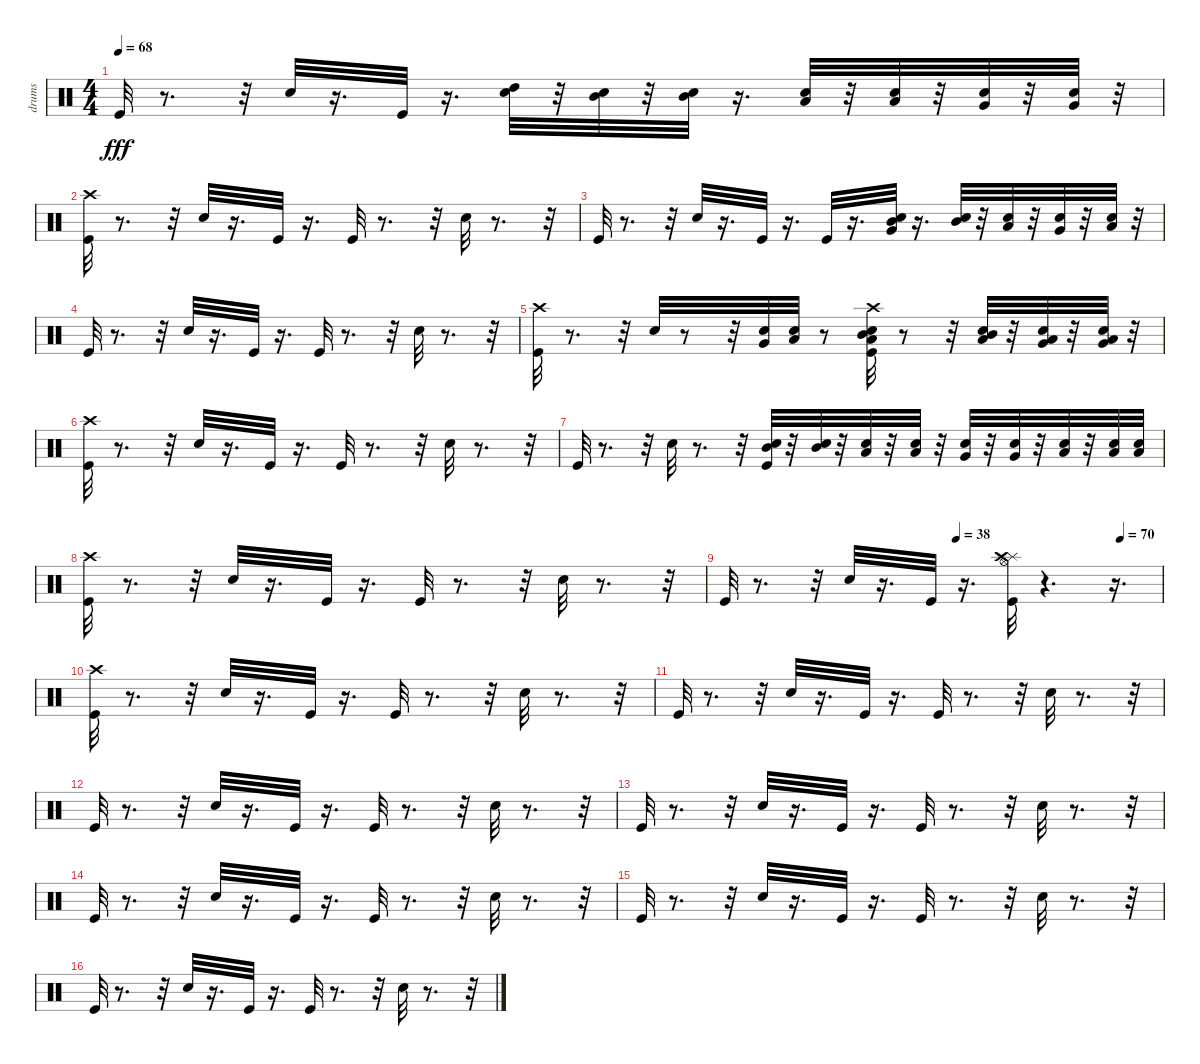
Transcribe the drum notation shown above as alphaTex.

\track ("drums" "drums") {instrument percussion}
\staff {score}
\articulation defaults
\ts (4 4)
\tempo 68
\clef neutral
\ks c "Kick (hit)".32{dy fff}
r.8{d} r.32 "Snare (hit) 2".32 r.16{d} "Kick (hit)".32 r.16{d} ("Snare (hit) 2" "High Tom (hit)").32 r.32 ("Snare (hit) 2" "Mid Tom (hit)").32 r.32 ("Snare (hit) 2" "Mid Tom (hit)").32 r.16{d} ("Snare (hit) 2" "Low Tom (hit)").32 r.32 ("Low Tom (hit)" "Snare (hit) 2").32 r.32 ("Snare (hit) 2" "Very Low Tom (hit)").32 r.32 ("Snare (hit) 2" "Very Low Tom (hit)").32 r.32 |
("Kick (hit)" "Crash high (hit)").32 r.8{d} r.32 "Snare (hit) 2".32 r.16{d} "Kick (hit)".32 r.16{d} "Kick (hit)".32 r.8{d} r.32 "Snare (hit) 2".32 r.8{d} r.32 |
"Kick (hit)".32 r.8{d} r.32 "Snare (hit) 2".32 r.16{d} "Kick (hit)".32 r.16{d} "Kick (hit)".32 r.16{d} ("Snare (hit) 2" "Mid Tom (hit)" "Very Low Tom (hit)").32 r.16{d} ("Snare (hit) 2" "Mid Tom (hit)").32 r.32 ("Low Tom (hit)" "Snare (hit) 2").32 r.32 ("Snare (hit) 2" "Very Low Tom (hit)").32 r.32 ("Snare (hit) 2" "Low Floor Tom (hit)").32 r.32 |
"Kick (hit)".32 r.8{d} r.32 "Snare (hit) 2".32 r.16{d} "Kick (hit)".32 r.16{d} "Kick (hit)".32 r.8{d} r.32 "Snare (hit) 2".32 r.8{d} r.32 |
("Kick (hit)" "Crash high (hit)").32 r.8{d} r.32 "Snare (hit) 2".32 r.8 r.32 ("Snare (hit) 2" "Very Low Tom (hit)").32 ("Snare (hit) 2" "Low Floor Tom (hit)").32 r.8 ("Snare (hit) 2" "Kick (hit)" "Crash high (hit)" "Mid Tom (hit)" "Low Tom (hit)").32 r.8 r.32 ("Snare (hit) 2" "Mid Tom (hit)" "Low Tom (hit)").32 r.32 ("Snare (hit) 2" "Low Tom (hit)" "Very Low Tom (hit)").32 r.32 ("Snare (hit) 2" "Low Floor Tom (hit)" "Very Low Tom (hit)").32 r.32 |
("Kick (hit)" "Crash high (hit)").32 r.8{d} r.32 "Snare (hit) 2".32 r.16{d} "Kick (hit)".32 r.16{d} "Kick (hit)".32 r.8{d} r.32 "Snare (hit) 2".32 r.8{d} r.32 |
"Kick (hit)".32 r.8{d} r.32 "Snare (hit) 2".32 r.8{d} r.32 ("Kick (hit)" "Snare (hit) 2" "Mid Tom (hit)").32 r.32 ("Snare (hit) 2" "Mid Tom (hit)").32 r.32 ("Snare (hit) 2" "Low Tom (hit)").32 r.32 ("Snare (hit) 2" "Low Tom (hit)").32 r.32 ("Snare (hit) 2" "Very Low Tom (hit)").32 r.32 ("Snare (hit) 2" "Very Low Tom (hit)").32 r.32 ("Low Floor Tom (hit)" "Snare (hit) 2").32 r.32 ("Snare (hit) 2" "Low Floor Tom (hit)").32 ("Snare (hit) 2" "Low Floor Tom (hit)").32 |
("Kick (hit)" "Crash high (hit)").32 r.8{d} r.32 "Snare (hit) 2".32 r.16{d} "Kick (hit)".32 r.16{d} "Kick (hit)".32 r.8{d} r.32 "Snare (hit) 2".32 r.8{d} r.32 |
\tempo (38 0.53125)
\tempo (70 0.90625)
"Kick (hit)".32 r.8{d} r.32 "Snare (hit) 2".32 r.16{d} "Kick (hit)".32 r.16{d} ("Kick (hit)" "Splash (hit)" "Hi-Hat (open)" "Crash high (hit)").32 r.4{d} r.16{d} |
("Kick (hit)" "Crash high (hit)").32 r.8{d} r.32 "Snare (hit) 2".32 r.16{d} "Kick (hit)".32 r.16{d} "Kick (hit)".32 r.8{d} r.32 "Snare (hit) 2".32 r.8{d} r.32 |
"Kick (hit)".32 r.8{d} r.32 "Snare (hit) 2".32 r.16{d} "Kick (hit)".32 r.16{d} "Kick (hit)".32 r.8{d} r.32 "Snare (hit) 2".32 r.8{d} r.32 |
"Kick (hit)".32 r.8{d} r.32 "Snare (hit) 2".32 r.16{d} "Kick (hit)".32 r.16{d} "Kick (hit)".32 r.8{d} r.32 "Snare (hit) 2".32 r.8{d} r.32 |
"Kick (hit)".32 r.8{d} r.32 "Snare (hit) 2".32 r.16{d} "Kick (hit)".32 r.16{d} "Kick (hit)".32 r.8{d} r.32 "Snare (hit) 2".32 r.8{d} r.32 |
"Kick (hit)".32 r.8{d} r.32 "Snare (hit) 2".32 r.16{d} "Kick (hit)".32 r.16{d} "Kick (hit)".32 r.8{d} r.32 "Snare (hit) 2".32 r.8{d} r.32 |
"Kick (hit)".32 r.8{d} r.32 "Snare (hit) 2".32 r.16{d} "Kick (hit)".32 r.16{d} "Kick (hit)".32 r.8{d} r.32 "Snare (hit) 2".32 r.8{d} r.32 |
"Kick (hit)".32 r.8{d} r.32 "Snare (hit) 2".32 r.16{d} "Kick (hit)".32 r.16{d} "Kick (hit)".32 r.8{d} r.32 "Snare (hit) 2".32 r.8{d} r.32
